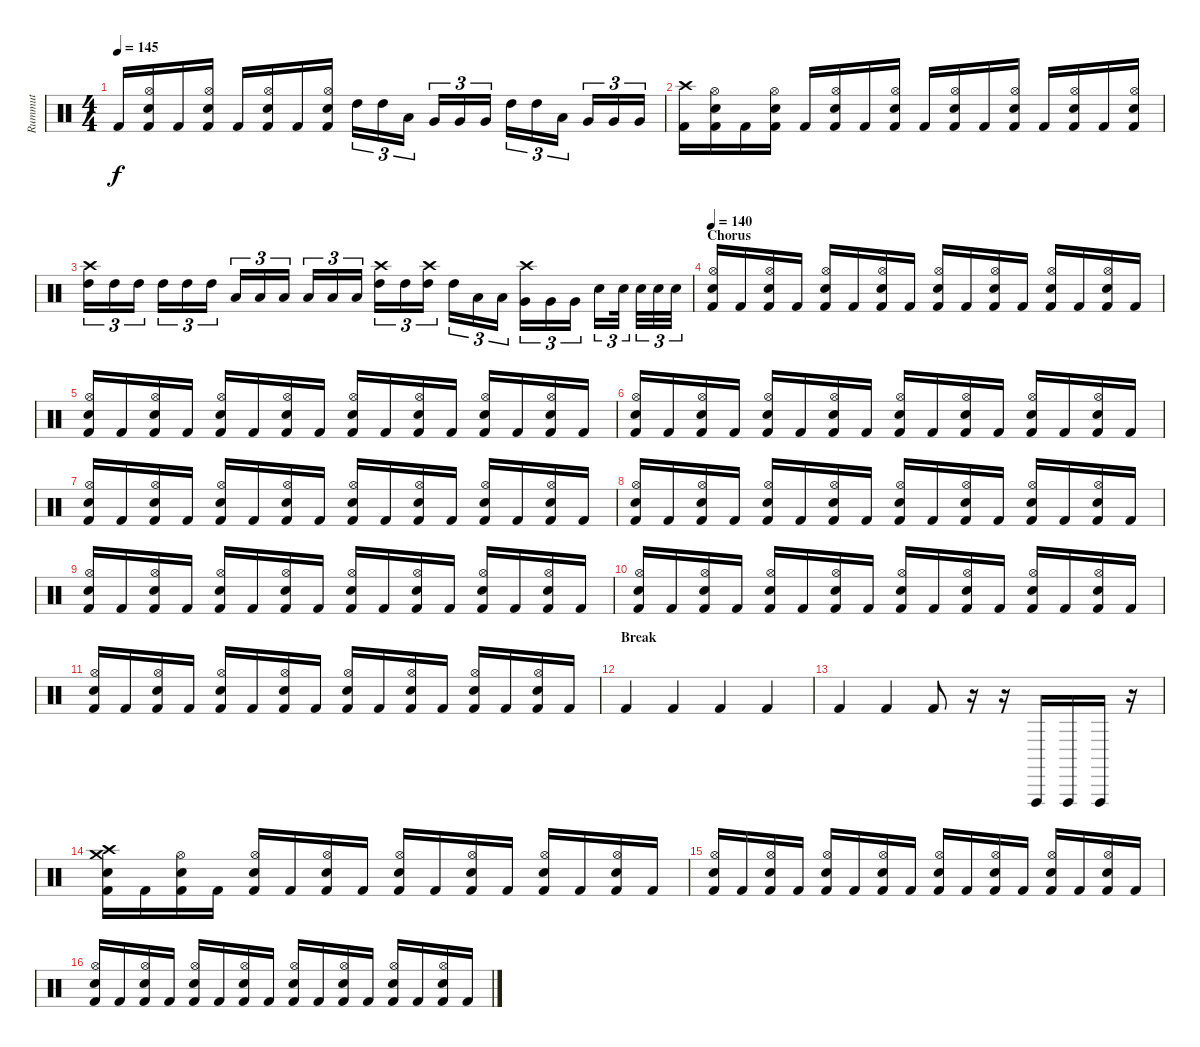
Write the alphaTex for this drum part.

\track ("Rummut" "Rummut") {instrument percussion}
\staff {score}
\articulation defaults
\ts (4 4)
\tempo 145
\clef neutral
\ks c "Kick (hit) 2".16{dy f}
("Hi-Hat (open)" "Snare (hit) 2" "Kick (hit) 2").16 "Kick (hit) 2".16 ("Hi-Hat (open)" "Snare (hit) 2" "Kick (hit) 2").16 "Kick (hit) 2".16 ("Hi-Hat (open)" "Snare (hit) 2" "Kick (hit) 2").16 "Kick (hit) 2".16 ("Hi-Hat (open)" "Snare (hit) 2" "Kick (hit) 2").16 "High Tom (hit)".16{tu (3 2)} "High Tom (hit)".16{tu (3 2)} "Low Tom (hit)".16{tu (3 2)} "Very Low Tom (hit)".16{tu (3 2)} "Very Low Tom (hit)".16{tu (3 2)} "Very Low Tom (hit)".16{tu (3 2)} "High Tom (hit)".16{tu (3 2)} "High Tom (hit)".16{tu (3 2)} "Low Tom (hit)".16{tu (3 2)} "Very Low Tom (hit)".16{tu (3 2)} "Very Low Tom (hit)".16{tu (3 2)} "Very Low Tom (hit)".16{tu (3 2)} |
("Crash high (hit)" "Kick (hit) 2").16 ("Hi-Hat (open)" "Snare (hit) 2" "Kick (hit) 2").16 "Kick (hit) 2".16 ("Hi-Hat (open)" "Snare (hit) 2" "Kick (hit) 2").16 "Kick (hit) 2".16 ("Hi-Hat (open)" "Snare (hit) 2" "Kick (hit) 2").16 "Kick (hit) 2".16 ("Hi-Hat (open)" "Snare (hit) 2" "Kick (hit) 2").16 "Kick (hit) 2".16 ("Hi-Hat (open)" "Snare (hit) 2" "Kick (hit) 2").16 "Kick (hit) 2".16 ("Hi-Hat (open)" "Snare (hit) 2" "Kick (hit) 2").16 "Kick (hit) 2".16 ("Hi-Hat (open)" "Snare (hit) 2" "Kick (hit) 2").16 "Kick (hit) 2".16 ("Hi-Hat (open)" "Snare (hit) 2" "Kick (hit) 2").16 |
("Crash high (hit)" "High Tom (hit)").16{tu (3 2)} "High Tom (hit)".16{tu (3 2)} "High Tom (hit)".16{tu (3 2)} "High Tom (hit)".16{tu (3 2)} "High Tom (hit)".16{tu (3 2)} "High Tom (hit)".16{tu (3 2)} "Low Tom (hit)".16{tu (3 2)} "Low Tom (hit)".16{tu (3 2)} "Low Tom (hit)".16{tu (3 2)} "Low Tom (hit)".16{tu (3 2)} "Low Tom (hit)".16{tu (3 2)} "Low Tom (hit)".16{tu (3 2)} ("Crash high (hit)" "High Tom (hit)").16{tu (3 2)} "High Tom (hit)".16{tu (3 2)} ("Crash high (hit)" "High Tom (hit)").16{tu (3 2)} "High Tom (hit)".16{tu (3 2)} "Low Tom (hit)".16{tu (3 2)} "Low Tom (hit)".16{tu (3 2)} ("Crash high (hit)" "Very Low Tom (hit)").16{tu (3 2)} "Very Low Tom (hit)".16{tu (3 2)} "Very Low Tom (hit)".16{tu (3 2)} "Metronome (bell)".16{tu (3 2)} "Snare (hit) 2".32{tu (3 2)} "Snare (hit) 2".32{tu (3 2)} "Snare (hit) 2".32{tu (3 2)} "Snare (hit) 2".32{tu (3 2)} |
\section ("" "Chorus")
\tempo 140
("Hi-Hat (open)" "Snare (hit) 2" "Kick (hit) 2").16 "Kick (hit) 2".16 ("Hi-Hat (open)" "Snare (hit) 2" "Kick (hit) 2").16 "Kick (hit) 2".16 ("Hi-Hat (open)" "Snare (hit) 2" "Kick (hit) 2").16 "Kick (hit) 2".16 ("Hi-Hat (open)" "Snare (hit) 2" "Kick (hit) 2").16 "Kick (hit) 2".16 ("Hi-Hat (open)" "Snare (hit) 2" "Kick (hit) 2").16 "Kick (hit) 2".16 ("Hi-Hat (open)" "Snare (hit) 2" "Kick (hit) 2").16 "Kick (hit) 2".16 ("Hi-Hat (open)" "Snare (hit) 2" "Kick (hit) 2").16 "Kick (hit) 2".16 ("Hi-Hat (open)" "Snare (hit) 2" "Kick (hit) 2").16 "Kick (hit) 2".16 |
("Hi-Hat (open)" "Snare (hit) 2" "Kick (hit) 2").16 "Kick (hit) 2".16 ("Hi-Hat (open)" "Snare (hit) 2" "Kick (hit) 2").16 "Kick (hit) 2".16 ("Hi-Hat (open)" "Snare (hit) 2" "Kick (hit) 2").16 "Kick (hit) 2".16 ("Hi-Hat (open)" "Snare (hit) 2" "Kick (hit) 2").16 "Kick (hit) 2".16 ("Hi-Hat (open)" "Snare (hit) 2" "Kick (hit) 2").16 "Kick (hit) 2".16 ("Hi-Hat (open)" "Snare (hit) 2" "Kick (hit) 2").16 "Kick (hit) 2".16 ("Hi-Hat (open)" "Snare (hit) 2" "Kick (hit) 2").16 "Kick (hit) 2".16 ("Hi-Hat (open)" "Snare (hit) 2" "Kick (hit) 2").16 "Kick (hit) 2".16 |
("Hi-Hat (open)" "Snare (hit) 2" "Kick (hit) 2").16 "Kick (hit) 2".16 ("Hi-Hat (open)" "Snare (hit) 2" "Kick (hit) 2").16 "Kick (hit) 2".16 ("Hi-Hat (open)" "Snare (hit) 2" "Kick (hit) 2").16 "Kick (hit) 2".16 ("Hi-Hat (open)" "Snare (hit) 2" "Kick (hit) 2").16 "Kick (hit) 2".16 ("Hi-Hat (open)" "Snare (hit) 2" "Kick (hit) 2").16 "Kick (hit) 2".16 ("Hi-Hat (open)" "Snare (hit) 2" "Kick (hit) 2").16 "Kick (hit) 2".16 ("Hi-Hat (open)" "Snare (hit) 2" "Kick (hit) 2").16 "Kick (hit) 2".16 ("Hi-Hat (open)" "Snare (hit) 2" "Kick (hit) 2").16 "Kick (hit) 2".16 |
("Hi-Hat (open)" "Snare (hit) 2" "Kick (hit) 2").16 "Kick (hit) 2".16 ("Hi-Hat (open)" "Snare (hit) 2" "Kick (hit) 2").16 "Kick (hit) 2".16 ("Hi-Hat (open)" "Snare (hit) 2" "Kick (hit) 2").16 "Kick (hit) 2".16 ("Hi-Hat (open)" "Snare (hit) 2" "Kick (hit) 2").16 "Kick (hit) 2".16 ("Hi-Hat (open)" "Snare (hit) 2" "Kick (hit) 2").16 "Kick (hit) 2".16 ("Hi-Hat (open)" "Snare (hit) 2" "Kick (hit) 2").16 "Kick (hit) 2".16 ("Hi-Hat (open)" "Snare (hit) 2" "Kick (hit) 2").16 "Kick (hit) 2".16 ("Hi-Hat (open)" "Snare (hit) 2" "Kick (hit) 2").16 "Kick (hit) 2".16 |
("Hi-Hat (open)" "Snare (hit) 2" "Kick (hit) 2").16 "Kick (hit) 2".16 ("Hi-Hat (open)" "Snare (hit) 2" "Kick (hit) 2").16 "Kick (hit) 2".16 ("Hi-Hat (open)" "Snare (hit) 2" "Kick (hit) 2").16 "Kick (hit) 2".16 ("Hi-Hat (open)" "Snare (hit) 2" "Kick (hit) 2").16 "Kick (hit) 2".16 ("Hi-Hat (open)" "Snare (hit) 2" "Kick (hit) 2").16 "Kick (hit) 2".16 ("Hi-Hat (open)" "Snare (hit) 2" "Kick (hit) 2").16 "Kick (hit) 2".16 ("Hi-Hat (open)" "Snare (hit) 2" "Kick (hit) 2").16 "Kick (hit) 2".16 ("Hi-Hat (open)" "Snare (hit) 2" "Kick (hit) 2").16 "Kick (hit) 2".16 |
("Hi-Hat (open)" "Snare (hit) 2" "Kick (hit) 2").16 "Kick (hit) 2".16 ("Hi-Hat (open)" "Snare (hit) 2" "Kick (hit) 2").16 "Kick (hit) 2".16 ("Hi-Hat (open)" "Snare (hit) 2" "Kick (hit) 2").16 "Kick (hit) 2".16 ("Hi-Hat (open)" "Snare (hit) 2" "Kick (hit) 2").16 "Kick (hit) 2".16 ("Hi-Hat (open)" "Snare (hit) 2" "Kick (hit) 2").16 "Kick (hit) 2".16 ("Hi-Hat (open)" "Snare (hit) 2" "Kick (hit) 2").16 "Kick (hit) 2".16 ("Hi-Hat (open)" "Snare (hit) 2" "Kick (hit) 2").16 "Kick (hit) 2".16 ("Hi-Hat (open)" "Snare (hit) 2" "Kick (hit) 2").16 "Kick (hit) 2".16 |
("Hi-Hat (open)" "Snare (hit) 2" "Kick (hit) 2").16 "Kick (hit) 2".16 ("Hi-Hat (open)" "Snare (hit) 2" "Kick (hit) 2").16 "Kick (hit) 2".16 ("Hi-Hat (open)" "Snare (hit) 2" "Kick (hit) 2").16 "Kick (hit) 2".16 ("Hi-Hat (open)" "Snare (hit) 2" "Kick (hit) 2").16 "Kick (hit) 2".16 ("Hi-Hat (open)" "Snare (hit) 2" "Kick (hit) 2").16 "Kick (hit) 2".16 ("Hi-Hat (open)" "Snare (hit) 2" "Kick (hit) 2").16 "Kick (hit) 2".16 ("Hi-Hat (open)" "Snare (hit) 2" "Kick (hit) 2").16 "Kick (hit) 2".16 ("Hi-Hat (open)" "Snare (hit) 2" "Kick (hit) 2").16 "Kick (hit) 2".16 |
("Hi-Hat (open)" "Snare (hit) 2" "Kick (hit) 2").16 "Kick (hit) 2".16 ("Hi-Hat (open)" "Snare (hit) 2" "Kick (hit) 2").16 "Kick (hit) 2".16 ("Hi-Hat (open)" "Snare (hit) 2" "Kick (hit) 2").16 "Kick (hit) 2".16 ("Hi-Hat (open)" "Snare (hit) 2" "Kick (hit) 2").16 "Kick (hit) 2".16 ("Hi-Hat (open)" "Snare (hit) 2" "Kick (hit) 2").16 "Kick (hit) 2".16 ("Hi-Hat (open)" "Snare (hit) 2" "Kick (hit) 2").16 "Kick (hit) 2".16 ("Hi-Hat (open)" "Snare (hit) 2" "Kick (hit) 2").16 "Kick (hit) 2".16 ("Hi-Hat (open)" "Snare (hit) 2" "Kick (hit) 2").16 "Kick (hit) 2".16 |
\section ("" "Break")
"Kick (hit) 2".4 "Kick (hit) 2".4 "Kick (hit) 2".4 "Kick (hit) 2".4 |
"Kick (hit) 2".4 "Kick (hit) 2".4 "Kick (hit) 2".8 r.16 r.16 "Vibraslap (hit)".16 "Vibraslap (hit)".16 "Vibraslap (hit)".16 r.16 |
("Crash high (hit)" "Crash medium (hit)" "Snare (hit) 2" "Kick (hit) 2").16 "Kick (hit) 2".16 ("Hi-Hat (open)" "Snare (hit) 2" "Kick (hit) 2").16 "Kick (hit) 2".16 ("Hi-Hat (open)" "Snare (hit) 2" "Kick (hit) 2").16 "Kick (hit) 2".16 ("Hi-Hat (open)" "Snare (hit) 2" "Kick (hit) 2").16 "Kick (hit) 2".16 ("Hi-Hat (open)" "Snare (hit) 2" "Kick (hit) 2").16 "Kick (hit) 2".16 ("Hi-Hat (open)" "Snare (hit) 2" "Kick (hit) 2").16 "Kick (hit) 2".16 ("Hi-Hat (open)" "Snare (hit) 2" "Kick (hit) 2").16 "Kick (hit) 2".16 ("Hi-Hat (open)" "Snare (hit) 2" "Kick (hit) 2").16 "Kick (hit) 2".16 |
("Hi-Hat (open)" "Snare (hit) 2" "Kick (hit) 2").16 "Kick (hit) 2".16 ("Hi-Hat (open)" "Snare (hit) 2" "Kick (hit) 2").16 "Kick (hit) 2".16 ("Hi-Hat (open)" "Snare (hit) 2" "Kick (hit) 2").16 "Kick (hit) 2".16 ("Hi-Hat (open)" "Snare (hit) 2" "Kick (hit) 2").16 "Kick (hit) 2".16 ("Hi-Hat (open)" "Snare (hit) 2" "Kick (hit) 2").16 "Kick (hit) 2".16 ("Hi-Hat (open)" "Snare (hit) 2" "Kick (hit) 2").16 "Kick (hit) 2".16 ("Hi-Hat (open)" "Snare (hit) 2" "Kick (hit) 2").16 "Kick (hit) 2".16 ("Hi-Hat (open)" "Snare (hit) 2" "Kick (hit) 2").16 "Kick (hit) 2".16 |
("Hi-Hat (open)" "Snare (hit) 2" "Kick (hit) 2").16 "Kick (hit) 2".16 ("Hi-Hat (open)" "Snare (hit) 2" "Kick (hit) 2").16 "Kick (hit) 2".16 ("Hi-Hat (open)" "Snare (hit) 2" "Kick (hit) 2").16 "Kick (hit) 2".16 ("Hi-Hat (open)" "Snare (hit) 2" "Kick (hit) 2").16 "Kick (hit) 2".16 ("Hi-Hat (open)" "Snare (hit) 2" "Kick (hit) 2").16 "Kick (hit) 2".16 ("Hi-Hat (open)" "Snare (hit) 2" "Kick (hit) 2").16 "Kick (hit) 2".16 ("Hi-Hat (open)" "Snare (hit) 2" "Kick (hit) 2").16 "Kick (hit) 2".16 ("Hi-Hat (open)" "Snare (hit) 2" "Kick (hit) 2").16 "Kick (hit) 2".16
